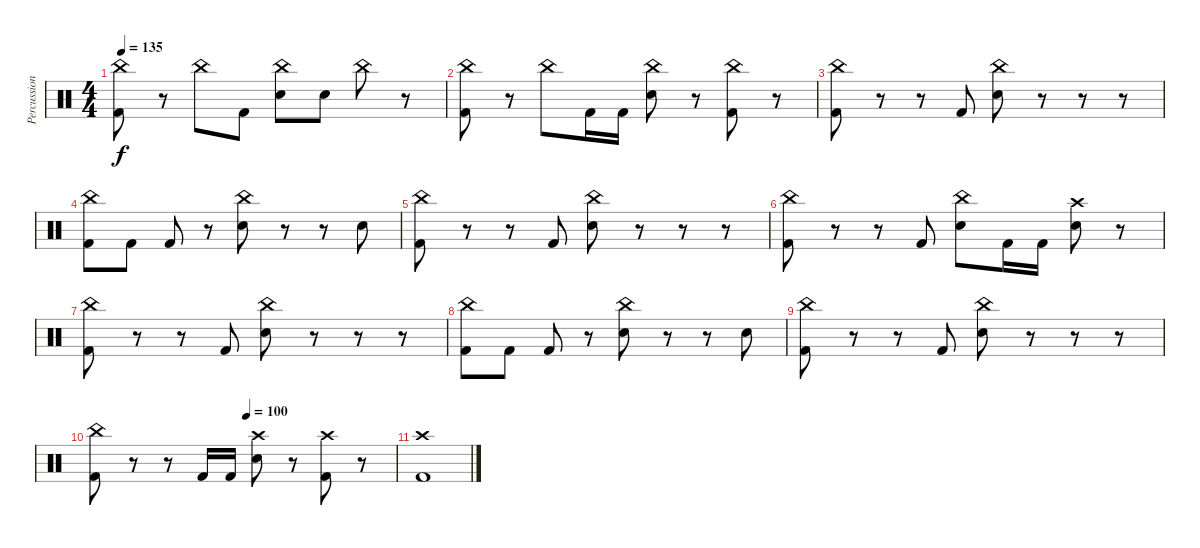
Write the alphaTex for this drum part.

\track ("Percussion" "Percussion") {instrument percussion}
\staff {score}
\articulation defaults
\ts (4 4)
\tempo 135
\clef neutral
\ks c
("China (hit)" "Kick (hit) 2").8{dy f} r.8 "China (hit)".8 "Kick (hit) 2".8 ("China (hit)" "Snare (hit) 2").8 "Snare (hit) 2".8 "China (hit)".8 r.8 |
("China (hit)" "Kick (hit) 2").8 r.8 "China (hit)".8 "Kick (hit) 2".16 "Kick (hit) 2".16 ("China (hit)" "Snare (hit) 2").8 r.8 ("China (hit)" "Kick (hit) 2").8 r.8 |
("China (hit)" "Kick (hit) 2").8 r.8 r.8 "Kick (hit) 2".8 ("China (hit)" "Snare (hit) 2").8 r.8 r.8 r.8 |
("China (hit)" "Kick (hit) 2").8 "Kick (hit) 2".8 "Kick (hit) 2".8 r.8 ("China (hit)" "Snare (hit) 2").8 r.8 r.8 "Snare (hit) 2".8 |
("China (hit)" "Kick (hit) 2").8 r.8 r.8 "Kick (hit) 2".8 ("China (hit)" "Snare (hit) 2").8 r.8 r.8 r.8 |
("China (hit)" "Kick (hit) 2").8 r.8 r.8 "Kick (hit) 2".8 ("China (hit)" "Snare (hit) 2").8 "Kick (hit) 2".16 "Kick (hit) 2".16 ("Crash high (hit)" "Snare (hit) 2").8 r.8 |
("China (hit)" "Kick (hit) 2").8 r.8 r.8 "Kick (hit) 2".8 ("China (hit)" "Snare (hit) 2").8 r.8 r.8 r.8 |
("China (hit)" "Kick (hit) 2").8 "Kick (hit) 2".8 "Kick (hit) 2".8 r.8 ("China (hit)" "Snare (hit) 2").8 r.8 r.8 "Snare (hit) 2".8 |
("China (hit)" "Kick (hit) 2").8 r.8 r.8 "Kick (hit) 2".8 ("China (hit)" "Snare (hit) 2").8 r.8 r.8 r.8 |
\tempo (100 0.5)
("China (hit)" "Kick (hit) 2").8 r.8 r.8 "Kick (hit) 2".16 "Kick (hit) 2".16 ("Crash high (hit)" "Snare (hit) 2").8 r.8 ("Crash high (hit)" "Kick (hit) 2").8 r.8 |
("Crash high (hit)" "Kick (hit) 2").1{volume 0}
